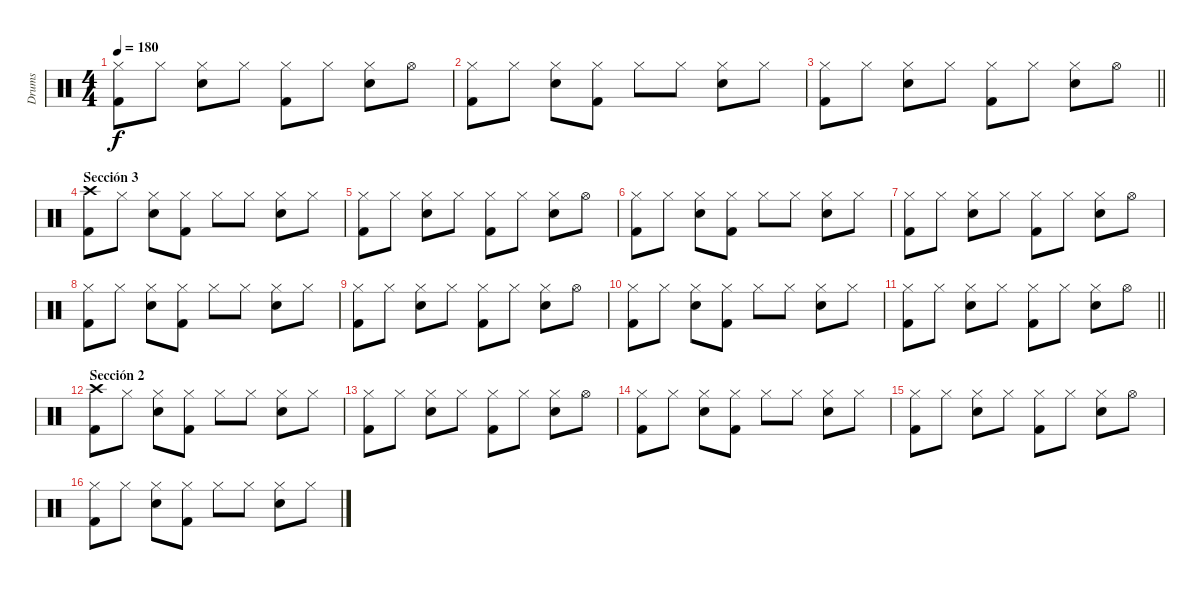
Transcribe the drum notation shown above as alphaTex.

\track ("Drums" "Drums") {instrument percussion}
\staff {score}
\articulation defaults
\ts (4 4)
\tempo 180
\clef neutral
\ks c
("Hi-Hat (closed)" "Kick (hit) 2").8{dy f} "Hi-Hat (closed)".8 ("Hi-Hat (closed)" "Snare (hit) 2").8 "Hi-Hat (closed)".8 ("Hi-Hat (closed)" "Kick (hit) 2").8 "Hi-Hat (closed)".8 ("Hi-Hat (closed)" "Snare (hit) 2").8 "Hi-Hat (open)".8 |
("Hi-Hat (closed)" "Kick (hit) 2").8 "Hi-Hat (closed)".8 ("Hi-Hat (closed)" "Snare (hit) 2").8 ("Hi-Hat (closed)" "Kick (hit) 2").8 "Hi-Hat (closed)".8 "Hi-Hat (closed)".8 ("Hi-Hat (closed)" "Snare (hit) 2").8 "Hi-Hat (closed)".8 |
\barLineRight lightlight
("Hi-Hat (closed)" "Kick (hit) 2").8 "Hi-Hat (closed)".8 ("Hi-Hat (closed)" "Snare (hit) 2").8 "Hi-Hat (closed)".8 ("Hi-Hat (closed)" "Kick (hit) 2").8 "Hi-Hat (closed)".8 ("Hi-Hat (closed)" "Snare (hit) 2").8 "Hi-Hat (open)".8 |
\section ("" "Sección 3")
("Crash high (hit)" "Kick (hit) 2").8 "Hi-Hat (closed)".8 ("Hi-Hat (closed)" "Snare (hit) 2").8 ("Hi-Hat (closed)" "Kick (hit) 2").8 "Hi-Hat (closed)".8 "Hi-Hat (closed)".8 ("Hi-Hat (closed)" "Snare (hit) 2").8 "Hi-Hat (closed)".8 |
("Hi-Hat (closed)" "Kick (hit) 2").8 "Hi-Hat (closed)".8 ("Hi-Hat (closed)" "Snare (hit) 2").8 "Hi-Hat (closed)".8 ("Hi-Hat (closed)" "Kick (hit) 2").8 "Hi-Hat (closed)".8 ("Hi-Hat (closed)" "Snare (hit) 2").8 "Hi-Hat (open)".8 |
("Hi-Hat (closed)" "Kick (hit) 2").8 "Hi-Hat (closed)".8 ("Hi-Hat (closed)" "Snare (hit) 2").8 ("Hi-Hat (closed)" "Kick (hit) 2").8 "Hi-Hat (closed)".8 "Hi-Hat (closed)".8 ("Hi-Hat (closed)" "Snare (hit) 2").8 "Hi-Hat (closed)".8 |
("Hi-Hat (closed)" "Kick (hit) 2").8 "Hi-Hat (closed)".8 ("Hi-Hat (closed)" "Snare (hit) 2").8 "Hi-Hat (closed)".8 ("Hi-Hat (closed)" "Kick (hit) 2").8 "Hi-Hat (closed)".8 ("Hi-Hat (closed)" "Snare (hit) 2").8 "Hi-Hat (open)".8 |
("Hi-Hat (closed)" "Kick (hit) 2").8 "Hi-Hat (closed)".8 ("Hi-Hat (closed)" "Snare (hit) 2").8 ("Hi-Hat (closed)" "Kick (hit) 2").8 "Hi-Hat (closed)".8 "Hi-Hat (closed)".8 ("Hi-Hat (closed)" "Snare (hit) 2").8 "Hi-Hat (closed)".8 |
("Hi-Hat (closed)" "Kick (hit) 2").8 "Hi-Hat (closed)".8 ("Hi-Hat (closed)" "Snare (hit) 2").8 "Hi-Hat (closed)".8 ("Hi-Hat (closed)" "Kick (hit) 2").8 "Hi-Hat (closed)".8 ("Hi-Hat (closed)" "Snare (hit) 2").8 "Hi-Hat (open)".8 |
("Hi-Hat (closed)" "Kick (hit) 2").8 "Hi-Hat (closed)".8 ("Hi-Hat (closed)" "Snare (hit) 2").8 ("Hi-Hat (closed)" "Kick (hit) 2").8 "Hi-Hat (closed)".8 "Hi-Hat (closed)".8 ("Hi-Hat (closed)" "Snare (hit) 2").8 "Hi-Hat (closed)".8 |
\barLineRight lightlight
("Hi-Hat (closed)" "Kick (hit) 2").8 "Hi-Hat (closed)".8 ("Hi-Hat (closed)" "Snare (hit) 2").8 "Hi-Hat (closed)".8 ("Hi-Hat (closed)" "Kick (hit) 2").8 "Hi-Hat (closed)".8 ("Hi-Hat (closed)" "Snare (hit) 2").8 "Hi-Hat (open)".8 |
\section ("" "Sección 2")
("Crash high (hit)" "Kick (hit) 2").8 "Hi-Hat (closed)".8 ("Hi-Hat (closed)" "Snare (hit) 2").8 ("Hi-Hat (closed)" "Kick (hit) 2").8 "Hi-Hat (closed)".8 "Hi-Hat (closed)".8 ("Hi-Hat (closed)" "Snare (hit) 2").8 "Hi-Hat (closed)".8 |
("Hi-Hat (closed)" "Kick (hit) 2").8 "Hi-Hat (closed)".8 ("Hi-Hat (closed)" "Snare (hit) 2").8 "Hi-Hat (closed)".8 ("Hi-Hat (closed)" "Kick (hit) 2").8 "Hi-Hat (closed)".8 ("Hi-Hat (closed)" "Snare (hit) 2").8 "Hi-Hat (open)".8 |
("Hi-Hat (closed)" "Kick (hit) 2").8 "Hi-Hat (closed)".8 ("Hi-Hat (closed)" "Snare (hit) 2").8 ("Hi-Hat (closed)" "Kick (hit) 2").8 "Hi-Hat (closed)".8 "Hi-Hat (closed)".8 ("Hi-Hat (closed)" "Snare (hit) 2").8 "Hi-Hat (closed)".8 |
("Hi-Hat (closed)" "Kick (hit) 2").8 "Hi-Hat (closed)".8 ("Hi-Hat (closed)" "Snare (hit) 2").8 "Hi-Hat (closed)".8 ("Hi-Hat (closed)" "Kick (hit) 2").8 "Hi-Hat (closed)".8 ("Hi-Hat (closed)" "Snare (hit) 2").8 "Hi-Hat (open)".8 |
("Hi-Hat (closed)" "Kick (hit) 2").8 "Hi-Hat (closed)".8 ("Hi-Hat (closed)" "Snare (hit) 2").8 ("Hi-Hat (closed)" "Kick (hit) 2").8 "Hi-Hat (closed)".8 "Hi-Hat (closed)".8 ("Hi-Hat (closed)" "Snare (hit) 2").8 "Hi-Hat (closed)".8
